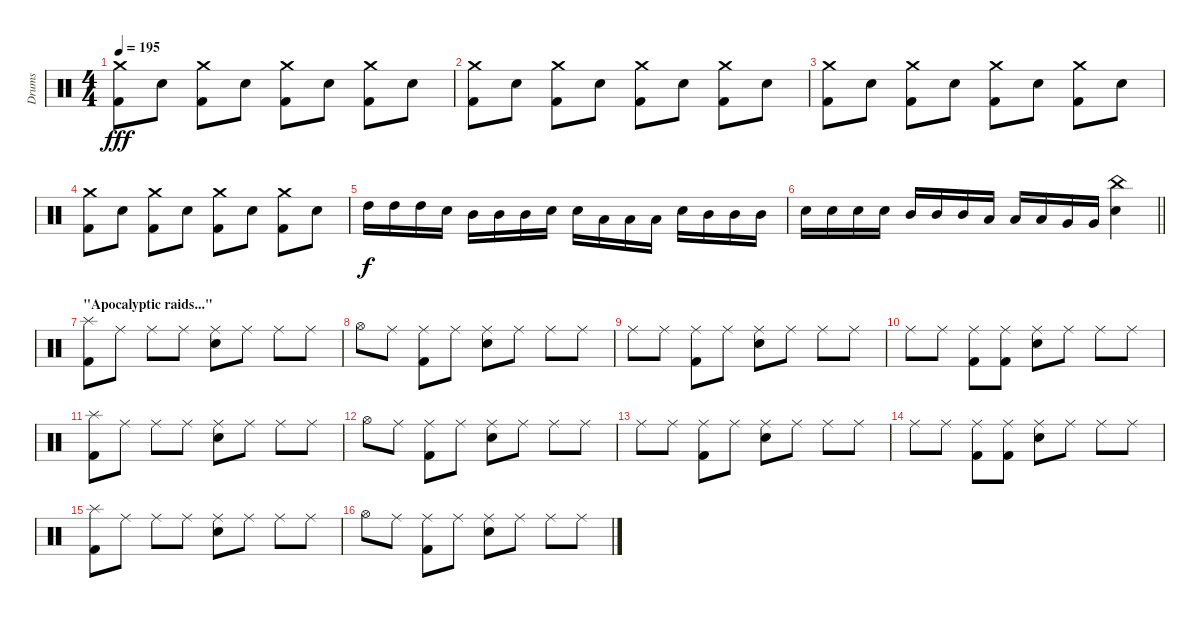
\track ("Drums" "Drums") {instrument percussion}
\staff {score}
\articulation defaults
\ts (4 4)
\tempo 195
\clef neutral
\ks c
("Crash medium (hit)" "Kick (hit) 2").8{dy fff} "Snare (hit) 2".8 ("Crash medium (hit)" "Kick (hit) 2").8 "Snare (hit) 2".8 ("Crash medium (hit)" "Kick (hit) 2").8 "Snare (hit) 2".8 ("Crash medium (hit)" "Kick (hit) 2").8 "Snare (hit) 2".8 |
("Crash medium (hit)" "Kick (hit) 2").8 "Snare (hit) 2".8 ("Crash medium (hit)" "Kick (hit) 2").8 "Snare (hit) 2".8 ("Crash medium (hit)" "Kick (hit) 2").8 "Snare (hit) 2".8 ("Crash medium (hit)" "Kick (hit) 2").8 "Snare (hit) 2".8 |
("Crash medium (hit)" "Kick (hit) 2").8 "Snare (hit) 2".8 ("Crash medium (hit)" "Kick (hit) 2").8 "Snare (hit) 2".8 ("Crash medium (hit)" "Kick (hit) 2").8 "Snare (hit) 2".8 ("Crash medium (hit)" "Kick (hit) 2").8 "Snare (hit) 2".8 |
("Crash medium (hit)" "Kick (hit) 2").8 "Snare (hit) 2".8 ("Crash medium (hit)" "Kick (hit) 2").8 "Snare (hit) 2".8 ("Crash medium (hit)" "Kick (hit) 2").8 "Snare (hit) 2".8 ("Crash medium (hit)" "Kick (hit) 2").8 "Snare (hit) 2".8 |
"High Tom (hit)".16{dy f} "High Tom (hit)".16 "High Tom (hit)".16 "Snare (hit) 2".16 "Mid Tom (hit)".16 "Mid Tom (hit)".16 "Mid Tom (hit)".16 "Snare (hit) 2".16 "Snare (hit) 2".16 "Low Tom (hit)".16 "Low Tom (hit)".16 "Low Tom (hit)".16 "Snare (hit) 2".16 "Mid Tom (hit)".16 "Mid Tom (hit)".16 "Mid Tom (hit)".16 |
\barLineRight lightlight "Snare (hit) 2".16 "Snare (hit) 2".16 "Snare (hit) 2".16 "Snare (hit) 2".16 "Mid Tom (hit)".16 "Mid Tom (hit)".16 "Mid Tom (hit)".16 "Low Tom (hit)".16 "Low Tom (hit)".16 "Low Tom (hit)".16 "Very Low Tom (hit)".16 "Very Low Tom (hit)".16
("China (hit)" "Snare (hit) 2").4 |
\section ("" "\"Apocalyptic raids...\"")
("Splash (hit)" "Kick (hit) 2").8 "Ride (middle)".8 "Ride (middle)".8 "Ride (middle)".8 ("Ride (middle)" "Snare (hit) 2").8 "Ride (middle)".8 "Ride (middle)".8 "Ride (middle)".8 |
"Hi-Hat (open)".8 "Ride (middle)".8 ("Ride (middle)" "Kick (hit) 2").8 "Ride (middle)".8 ("Ride (middle)" "Snare (hit) 2").8 "Ride (middle)".8 "Ride (middle)".8 "Ride (middle)".8 |
"Ride (middle)".8 "Ride (middle)".8 ("Ride (middle)" "Kick (hit) 2").8 "Ride (middle)".8 ("Ride (middle)" "Snare (hit) 2").8 "Ride (middle)".8 "Ride (middle)".8 "Ride (middle)".8 |
"Ride (middle)".8 "Ride (middle)".8 ("Ride (middle)" "Kick (hit) 2").8 ("Ride (middle)" "Kick (hit) 2").8 ("Ride (middle)" "Snare (hit) 2").8 "Ride (middle)".8 "Ride (middle)".8 "Ride (middle)".8 |
("Splash (hit)" "Kick (hit) 2").8 "Ride (middle)".8 "Ride (middle)".8 "Ride (middle)".8 ("Ride (middle)" "Snare (hit) 2").8 "Ride (middle)".8 "Ride (middle)".8 "Ride (middle)".8 |
"Hi-Hat (open)".8 "Ride (middle)".8 ("Ride (middle)" "Kick (hit) 2").8 "Ride (middle)".8 ("Ride (middle)" "Snare (hit) 2").8 "Ride (middle)".8 "Ride (middle)".8 "Ride (middle)".8 |
"Ride (middle)".8 "Ride (middle)".8 ("Ride (middle)" "Kick (hit) 2").8 "Ride (middle)".8 ("Ride (middle)" "Snare (hit) 2").8 "Ride (middle)".8 "Ride (middle)".8 "Ride (middle)".8 |
"Ride (middle)".8 "Ride (middle)".8 ("Ride (middle)" "Kick (hit) 2").8 ("Ride (middle)" "Kick (hit) 2").8 ("Ride (middle)" "Snare (hit) 2").8 "Ride (middle)".8 "Ride (middle)".8 "Ride (middle)".8 |
("Splash (hit)" "Kick (hit) 2").8 "Ride (middle)".8 "Ride (middle)".8 "Ride (middle)".8 ("Ride (middle)" "Snare (hit) 2").8 "Ride (middle)".8 "Ride (middle)".8 "Ride (middle)".8 |
"Hi-Hat (open)".8 "Ride (middle)".8 ("Ride (middle)" "Kick (hit) 2").8 "Ride (middle)".8 ("Ride (middle)" "Snare (hit) 2").8 "Ride (middle)".8 "Ride (middle)".8 "Ride (middle)".8
